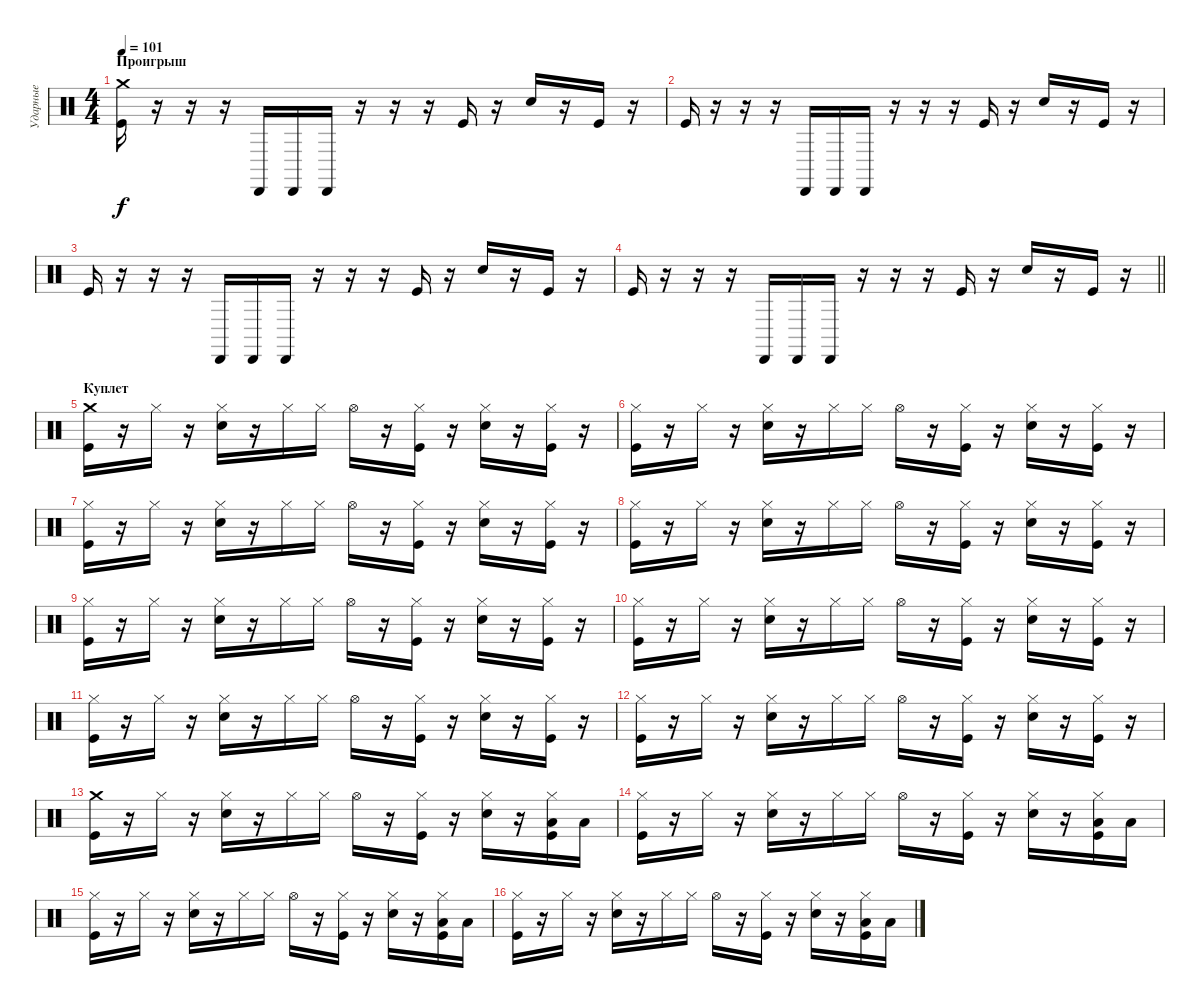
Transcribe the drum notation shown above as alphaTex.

\track ("Ударные" "Ударные") {instrument percussion}
\staff {score}
\articulation defaults
\ts (4 4)
\section ("" "Проигрыш")
\tempo 101
\clef neutral
\ks c
("Crash medium (hit)" "Kick (hit)").16{dy f} r.16 r.16 r.16 "Cabasa (hit)".16 "Cabasa (hit)".16 "Cabasa (hit)".16 r.16 r.16 r.16 "Kick (hit)".16 r.16 "Electric Snare (hit)".16 r.16 "Kick (hit)".16 r.16 |
"Kick (hit)".16 r.16 r.16 r.16 "Cabasa (hit)".16 "Cabasa (hit)".16 "Cabasa (hit)".16 r.16 r.16 r.16 "Kick (hit)".16 r.16 "Electric Snare (hit)".16 r.16 "Kick (hit)".16 r.16 |
"Kick (hit)".16 r.16 r.16 r.16 "Cabasa (hit)".16 "Cabasa (hit)".16 "Cabasa (hit)".16 r.16 r.16 r.16 "Kick (hit)".16 r.16 "Electric Snare (hit)".16 r.16 "Kick (hit)".16 r.16 |
\barLineRight lightlight "Kick (hit)".16
r.16 r.16 r.16 "Cabasa (hit)".16 "Cabasa (hit)".16 "Cabasa (hit)".16 r.16 r.16 r.16 "Kick (hit)".16 r.16 "Electric Snare (hit)".16 r.16 "Kick (hit)".16 r.16 |
\section ("" "Куплет")
("Crash medium (hit)" "Kick (hit)").16 r.16 "Hi-Hat (closed)".16 r.16 ("Hi-Hat (closed)" "Electric Snare (hit)").16 r.16 "Hi-Hat (closed)".16 "Hi-Hat (closed)".16 "Hi-Hat (open)".16 r.16 ("Hi-Hat (closed)" "Kick (hit)").16 r.16 ("Hi-Hat (closed)" "Electric Snare (hit)").16 r.16 ("Hi-Hat (closed)" "Kick (hit)").16 r.16 |
("Hi-Hat (closed)" "Kick (hit)").16 r.16 "Hi-Hat (closed)".16 r.16 ("Hi-Hat (closed)" "Electric Snare (hit)").16 r.16 "Hi-Hat (closed)".16 "Hi-Hat (closed)".16 "Hi-Hat (open)".16 r.16 ("Hi-Hat (closed)" "Kick (hit)").16 r.16 ("Hi-Hat (closed)" "Electric Snare (hit)").16 r.16 ("Hi-Hat (closed)" "Kick (hit)").16 r.16 |
("Hi-Hat (closed)" "Kick (hit)").16 r.16 "Hi-Hat (closed)".16 r.16 ("Hi-Hat (closed)" "Electric Snare (hit)").16 r.16 "Hi-Hat (closed)".16 "Hi-Hat (closed)".16 "Hi-Hat (open)".16 r.16 ("Hi-Hat (closed)" "Kick (hit)").16 r.16 ("Hi-Hat (closed)" "Electric Snare (hit)").16 r.16 ("Hi-Hat (closed)" "Kick (hit)").16 r.16 |
("Hi-Hat (closed)" "Kick (hit)").16 r.16 "Hi-Hat (closed)".16 r.16 ("Hi-Hat (closed)" "Electric Snare (hit)").16 r.16 "Hi-Hat (closed)".16 "Hi-Hat (closed)".16 "Hi-Hat (open)".16 r.16 ("Hi-Hat (closed)" "Kick (hit)").16 r.16 ("Hi-Hat (closed)" "Electric Snare (hit)").16 r.16 ("Hi-Hat (closed)" "Kick (hit)").16 r.16 |
("Hi-Hat (closed)" "Kick (hit)").16 r.16 "Hi-Hat (closed)".16 r.16 ("Hi-Hat (closed)" "Electric Snare (hit)").16 r.16 "Hi-Hat (closed)".16 "Hi-Hat (closed)".16 "Hi-Hat (open)".16 r.16 ("Hi-Hat (closed)" "Kick (hit)").16 r.16 ("Hi-Hat (closed)" "Electric Snare (hit)").16 r.16 ("Hi-Hat (closed)" "Kick (hit)").16 r.16 |
("Hi-Hat (closed)" "Kick (hit)").16 r.16 "Hi-Hat (closed)".16 r.16 ("Hi-Hat (closed)" "Electric Snare (hit)").16 r.16 "Hi-Hat (closed)".16 "Hi-Hat (closed)".16 "Hi-Hat (open)".16 r.16 ("Hi-Hat (closed)" "Kick (hit)").16 r.16 ("Hi-Hat (closed)" "Electric Snare (hit)").16 r.16 ("Hi-Hat (closed)" "Kick (hit)").16 r.16 |
("Hi-Hat (closed)" "Kick (hit)").16 r.16 "Hi-Hat (closed)".16 r.16 ("Hi-Hat (closed)" "Electric Snare (hit)").16 r.16 "Hi-Hat (closed)".16 "Hi-Hat (closed)".16 "Hi-Hat (open)".16 r.16 ("Hi-Hat (closed)" "Kick (hit)").16 r.16 ("Hi-Hat (closed)" "Electric Snare (hit)").16 r.16 ("Hi-Hat (closed)" "Kick (hit)").16 r.16 |
("Hi-Hat (closed)" "Kick (hit)").16 r.16 "Hi-Hat (closed)".16 r.16 ("Hi-Hat (closed)" "Electric Snare (hit)").16 r.16 "Hi-Hat (closed)".16 "Hi-Hat (closed)".16 "Hi-Hat (open)".16 r.16 ("Hi-Hat (closed)" "Kick (hit)").16 r.16 ("Hi-Hat (closed)" "Electric Snare (hit)").16 r.16 ("Hi-Hat (closed)" "Kick (hit)").16 r.16 |
("Crash medium (hit)" "Kick (hit)").16 r.16 "Hi-Hat (closed)".16 r.16 ("Hi-Hat (closed)" "Electric Snare (hit)").16 r.16 "Hi-Hat (closed)".16 "Hi-Hat (closed)".16 "Hi-Hat (open)".16 r.16 ("Hi-Hat (closed)" "Kick (hit)").16 r.16 ("Hi-Hat (closed)" "Electric Snare (hit)").16 r.16 ("Hi-Hat (closed)" "Low Tom (hit)" "Kick (hit)").16 "Low Tom (hit)".16 |
("Hi-Hat (closed)" "Kick (hit)").16 r.16 "Hi-Hat (closed)".16 r.16 ("Hi-Hat (closed)" "Electric Snare (hit)").16 r.16 "Hi-Hat (closed)".16 "Hi-Hat (closed)".16 "Hi-Hat (open)".16 r.16 ("Hi-Hat (closed)" "Kick (hit)").16 r.16 ("Hi-Hat (closed)" "Electric Snare (hit)").16 r.16 ("Hi-Hat (closed)" "Low Tom (hit)" "Kick (hit)").16 "Low Tom (hit)".16 |
("Hi-Hat (closed)" "Kick (hit)").16 r.16 "Hi-Hat (closed)".16 r.16 ("Hi-Hat (closed)" "Electric Snare (hit)").16 r.16 "Hi-Hat (closed)".16 "Hi-Hat (closed)".16 "Hi-Hat (open)".16 r.16 ("Hi-Hat (closed)" "Kick (hit)").16 r.16 ("Hi-Hat (closed)" "Electric Snare (hit)").16 r.16 ("Hi-Hat (closed)" "Low Tom (hit)" "Kick (hit)").16 "Low Tom (hit)".16 |
("Hi-Hat (closed)" "Kick (hit)").16 r.16 "Hi-Hat (closed)".16 r.16 ("Hi-Hat (closed)" "Electric Snare (hit)").16 r.16 "Hi-Hat (closed)".16 "Hi-Hat (closed)".16 "Hi-Hat (open)".16 r.16 ("Hi-Hat (closed)" "Kick (hit)").16 r.16 ("Hi-Hat (closed)" "Electric Snare (hit)").16 r.16 ("Hi-Hat (closed)" "Low Tom (hit)" "Kick (hit)").16 "Low Tom (hit)".16
